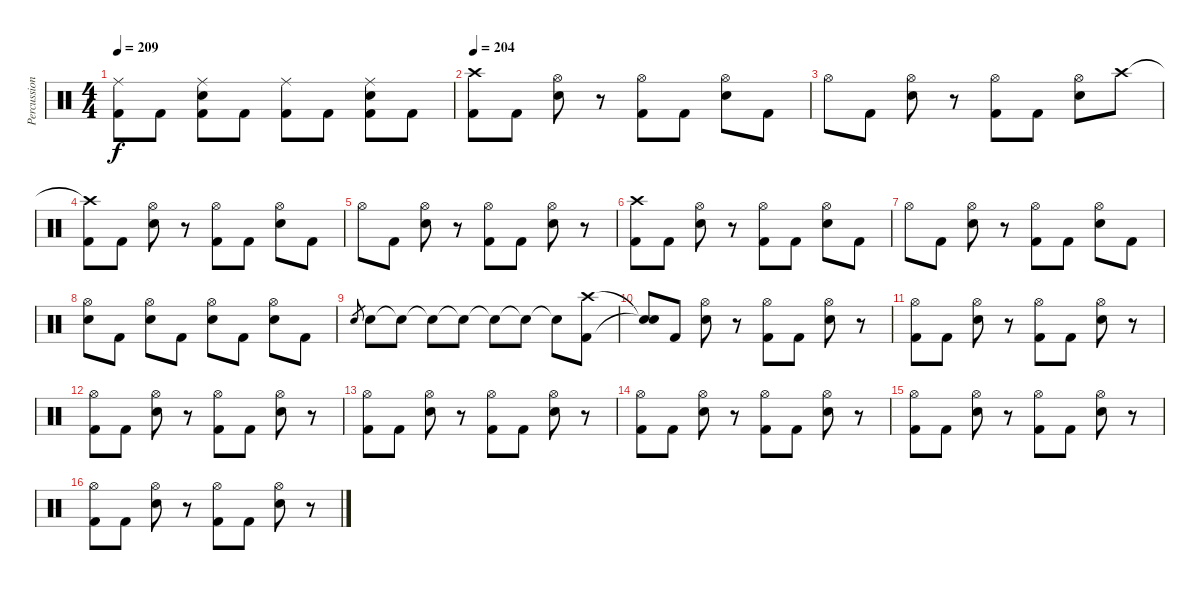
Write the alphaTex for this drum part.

\track ("Percussion" "Percussion") {instrument percussion}
\staff {score}
\articulation defaults
\ts (4 4)
\tempo 209
\clef neutral
\ks c
("Ride (middle)" "Kick (hit) 2").8{dy f} "Kick (hit) 2".8 ("Ride (middle)" "Electric Snare (hit)" "Kick (hit) 2").8 "Kick (hit) 2".8 ("Ride (middle)" "Kick (hit) 2").8 "Kick (hit) 2".8 ("Ride (middle)" "Electric Snare (hit)" "Kick (hit) 2").8 "Kick (hit) 2".8 |
\tempo 204
("Crash high (hit)" "Kick (hit) 2").8 "Kick (hit) 2".8 ("Hi-Hat (open)" "Electric Snare (hit)").8 r.8 ("Hi-Hat (open)" "Kick (hit) 2").8 "Kick (hit) 2".8 ("Hi-Hat (open)" "Electric Snare (hit)").8 "Kick (hit) 2".8 |
"Hi-Hat (open)".8 "Kick (hit) 2".8 ("Hi-Hat (open)" "Snare (hit) 2").8 r.8 ("Hi-Hat (open)" "Kick (hit) 2").8 "Kick (hit) 2".8 ("Hi-Hat (open)" "Electric Snare (hit)").8 "Crash high (hit)".8 |
("Crash high (hit)"{t} "Kick (hit) 2").8 "Kick (hit) 2".8 ("Hi-Hat (open)" "Electric Snare (hit)").8 r.8 ("Hi-Hat (open)" "Kick (hit) 2").8 "Kick (hit) 2".8 ("Hi-Hat (open)" "Electric Snare (hit)").8 "Kick (hit) 2".8 |
"Hi-Hat (open)".8 "Kick (hit) 2".8 ("Hi-Hat (open)" "Electric Snare (hit)").8 r.8 ("Hi-Hat (open)" "Kick (hit) 2").8 "Kick (hit) 2".8 ("Hi-Hat (open)" "Electric Snare (hit)").8 r.8 |
("Crash high (hit)" "Kick (hit) 2").8 "Kick (hit) 2".8 ("Hi-Hat (open)" "Electric Snare (hit)").8 r.8 ("Hi-Hat (open)" "Kick (hit) 2").8 "Kick (hit) 2".8 ("Hi-Hat (open)" "Electric Snare (hit)").8 "Kick (hit) 2".8 |
"Hi-Hat (open)".8 "Kick (hit) 2".8 ("Hi-Hat (open)" "Electric Snare (hit)").8 r.8 ("Hi-Hat (open)" "Kick (hit) 2").8 "Kick (hit) 2".8 ("Hi-Hat (open)" "Electric Snare (hit)").8 "Kick (hit) 2".8 |
("Hi-Hat (open)" "Electric Snare (hit)").8 "Kick (hit) 2".8 ("Hi-Hat (open)" "Electric Snare (hit)").8 "Kick (hit) 2".8 ("Hi-Hat (open)" "Electric Snare (hit)").8 "Kick (hit) 2".8 ("Hi-Hat (open)" "Electric Snare (hit)").8 "Kick (hit) 2".8 |
"Snare (hit) 2".8{gr} "Electric Snare (hit)".8 "Snare (hit)"{t}.8 "Snare (hit)"{t}.8 "Snare (hit)"{t}.8 "Snare (hit)"{t}.8 "Snare (hit)"{t}.8 "Snare (hit)"{t}.8 ("Crash high (hit)" "Kick (hit) 2").8 |
("Snare (hit)"{t} "Snare (hit)"{t}).8 "Kick (hit) 2".8 ("Hi-Hat (open)" "Electric Snare (hit)").8 r.8 ("Hi-Hat (open)" "Kick (hit) 2").8 "Kick (hit) 2".8 ("Hi-Hat (open)" "Electric Snare (hit)").8 r.8 |
("Hi-Hat (open)" "Kick (hit) 2").8 "Kick (hit) 2".8 ("Hi-Hat (open)" "Electric Snare (hit)").8 r.8 ("Hi-Hat (open)" "Kick (hit) 2").8 "Kick (hit) 2".8 ("Hi-Hat (open)" "Electric Snare (hit)").8 r.8 |
("Hi-Hat (open)" "Kick (hit) 2").8 "Kick (hit) 2".8 ("Hi-Hat (open)" "Electric Snare (hit)").8 r.8 ("Hi-Hat (open)" "Kick (hit) 2").8 "Kick (hit) 2".8 ("Hi-Hat (open)" "Electric Snare (hit)").8 r.8 |
("Hi-Hat (open)" "Kick (hit) 2").8 "Kick (hit) 2".8 ("Hi-Hat (open)" "Electric Snare (hit)").8 r.8 ("Hi-Hat (open)" "Kick (hit) 2").8 "Kick (hit) 2".8 ("Hi-Hat (open)" "Electric Snare (hit)").8 r.8 |
("Hi-Hat (open)" "Kick (hit) 2").8 "Kick (hit) 2".8 ("Hi-Hat (open)" "Electric Snare (hit)").8 r.8 ("Hi-Hat (open)" "Kick (hit) 2").8 "Kick (hit) 2".8 ("Hi-Hat (open)" "Electric Snare (hit)").8 r.8 |
("Hi-Hat (open)" "Kick (hit) 2").8 "Kick (hit) 2".8 ("Hi-Hat (open)" "Electric Snare (hit)").8 r.8 ("Hi-Hat (open)" "Kick (hit) 2").8 "Kick (hit) 2".8 ("Hi-Hat (open)" "Electric Snare (hit)").8 r.8 |
("Hi-Hat (open)" "Kick (hit) 2").8 "Kick (hit) 2".8 ("Hi-Hat (open)" "Electric Snare (hit)").8 r.8 ("Hi-Hat (open)" "Kick (hit) 2").8 "Kick (hit) 2".8 ("Hi-Hat (open)" "Electric Snare (hit)").8 r.8
